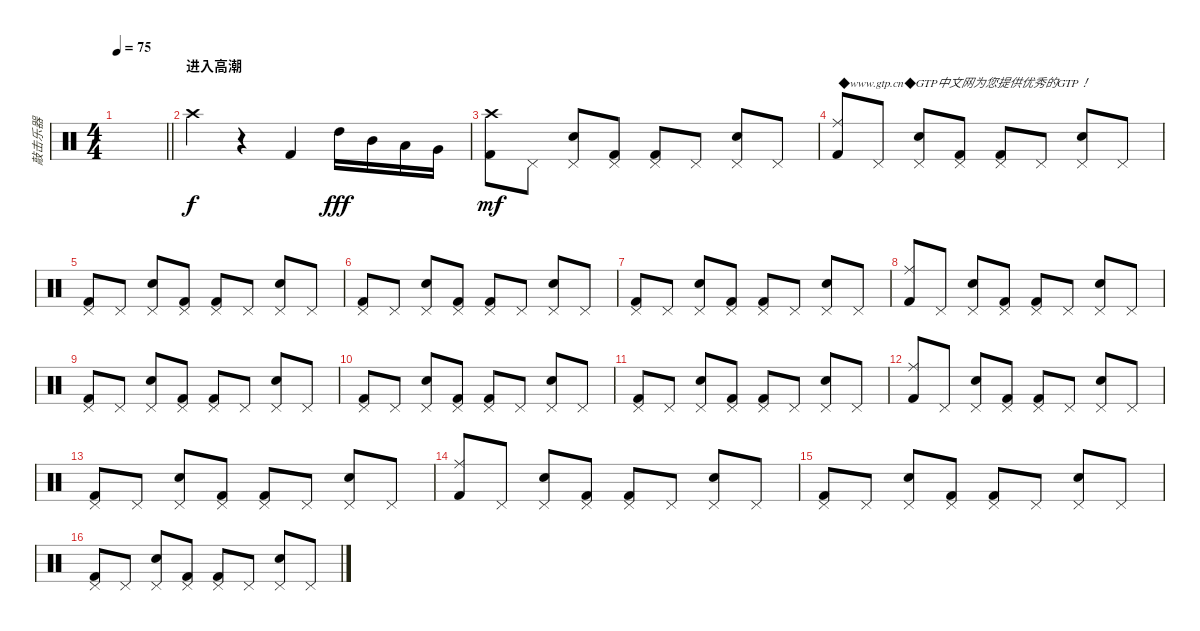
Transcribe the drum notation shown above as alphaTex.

\track ("敲击乐器" "敲击乐器") {instrument percussion}
\staff {score}
\articulation defaults
\ts (4 4)
\tempo 75
\clef neutral
\barLineRight lightlight
\ks c
|
\section ("" "进入高潮")
"Crash high (hit)".4 r.4 "Kick (hit) 2".4 "High Tom (hit)".16{dy fff} "Mid Tom (hit)".16 "Low Tom (hit)".16 "Very Low Tom (hit)".16 |
("Crash high (hit)" "Kick (hit) 2").8{dy mf} "Pedal Hi-Hat (hit)".8 ("Pedal Hi-Hat (hit)" "Electric Snare (hit)").8 ("Pedal Hi-Hat (hit)" "Kick (hit) 2").8 ("Pedal Hi-Hat (hit)" "Kick (hit) 2").8 "Pedal Hi-Hat (hit)".8 ("Pedal Hi-Hat (hit)" "Electric Snare (hit)").8 "Pedal Hi-Hat (hit)".8 |
("Ride (middle)" "Kick (hit) 2").8{txt "◆www.gtp.cn◆GTP中文网为您提供优秀的GTP！"} "Pedal Hi-Hat (hit)".8 ("Pedal Hi-Hat (hit)" "Electric Snare (hit)").8 ("Pedal Hi-Hat (hit)" "Kick (hit) 2").8 ("Pedal Hi-Hat (hit)" "Kick (hit) 2").8 "Pedal Hi-Hat (hit)".8 ("Pedal Hi-Hat (hit)" "Electric Snare (hit)").8 "Pedal Hi-Hat (hit)".8 |
("Pedal Hi-Hat (hit)" "Kick (hit) 2").8 "Pedal Hi-Hat (hit)".8 ("Pedal Hi-Hat (hit)" "Electric Snare (hit)").8 ("Pedal Hi-Hat (hit)" "Kick (hit) 2").8 ("Pedal Hi-Hat (hit)" "Kick (hit) 2").8 "Pedal Hi-Hat (hit)".8 ("Pedal Hi-Hat (hit)" "Electric Snare (hit)").8 "Pedal Hi-Hat (hit)".8 |
("Pedal Hi-Hat (hit)" "Kick (hit) 2").8 "Pedal Hi-Hat (hit)".8 ("Pedal Hi-Hat (hit)" "Electric Snare (hit)").8 ("Pedal Hi-Hat (hit)" "Kick (hit) 2").8 ("Pedal Hi-Hat (hit)" "Kick (hit) 2").8 "Pedal Hi-Hat (hit)".8 ("Pedal Hi-Hat (hit)" "Electric Snare (hit)").8 "Pedal Hi-Hat (hit)".8 |
("Pedal Hi-Hat (hit)" "Kick (hit) 2").8 "Pedal Hi-Hat (hit)".8 ("Pedal Hi-Hat (hit)" "Electric Snare (hit)").8 ("Pedal Hi-Hat (hit)" "Kick (hit) 2").8 ("Pedal Hi-Hat (hit)" "Kick (hit) 2").8 "Pedal Hi-Hat (hit)".8 ("Pedal Hi-Hat (hit)" "Electric Snare (hit)").8 "Pedal Hi-Hat (hit)".8 |
("Ride (middle)" "Kick (hit) 2").8 "Pedal Hi-Hat (hit)".8 ("Pedal Hi-Hat (hit)" "Electric Snare (hit)").8 ("Pedal Hi-Hat (hit)" "Kick (hit) 2").8 ("Pedal Hi-Hat (hit)" "Kick (hit) 2").8 "Pedal Hi-Hat (hit)".8 ("Pedal Hi-Hat (hit)" "Electric Snare (hit)").8 "Pedal Hi-Hat (hit)".8 |
("Pedal Hi-Hat (hit)" "Kick (hit) 2").8 "Pedal Hi-Hat (hit)".8 ("Pedal Hi-Hat (hit)" "Electric Snare (hit)").8 ("Pedal Hi-Hat (hit)" "Kick (hit) 2").8 ("Pedal Hi-Hat (hit)" "Kick (hit) 2").8 "Pedal Hi-Hat (hit)".8 ("Pedal Hi-Hat (hit)" "Electric Snare (hit)").8 "Pedal Hi-Hat (hit)".8 |
("Pedal Hi-Hat (hit)" "Kick (hit) 2").8 "Pedal Hi-Hat (hit)".8 ("Pedal Hi-Hat (hit)" "Electric Snare (hit)").8 ("Pedal Hi-Hat (hit)" "Kick (hit) 2").8 ("Pedal Hi-Hat (hit)" "Kick (hit) 2").8 "Pedal Hi-Hat (hit)".8 ("Pedal Hi-Hat (hit)" "Electric Snare (hit)").8 "Pedal Hi-Hat (hit)".8 |
("Pedal Hi-Hat (hit)" "Kick (hit) 2").8 "Pedal Hi-Hat (hit)".8 ("Pedal Hi-Hat (hit)" "Electric Snare (hit)").8 ("Pedal Hi-Hat (hit)" "Kick (hit) 2").8 ("Pedal Hi-Hat (hit)" "Kick (hit) 2").8 "Pedal Hi-Hat (hit)".8 ("Pedal Hi-Hat (hit)" "Electric Snare (hit)").8 "Pedal Hi-Hat (hit)".8 |
("Ride (middle)" "Kick (hit) 2").8 "Pedal Hi-Hat (hit)".8 ("Pedal Hi-Hat (hit)" "Electric Snare (hit)").8 ("Pedal Hi-Hat (hit)" "Kick (hit) 2").8 ("Pedal Hi-Hat (hit)" "Kick (hit) 2").8 "Pedal Hi-Hat (hit)".8 ("Pedal Hi-Hat (hit)" "Electric Snare (hit)").8 "Pedal Hi-Hat (hit)".8 |
("Pedal Hi-Hat (hit)" "Kick (hit) 2").8 "Pedal Hi-Hat (hit)".8 ("Pedal Hi-Hat (hit)" "Electric Snare (hit)").8 ("Pedal Hi-Hat (hit)" "Kick (hit) 2").8 ("Pedal Hi-Hat (hit)" "Kick (hit) 2").8 "Pedal Hi-Hat (hit)".8 ("Pedal Hi-Hat (hit)" "Electric Snare (hit)").8 "Pedal Hi-Hat (hit)".8 |
("Ride (middle)" "Kick (hit) 2").8 "Pedal Hi-Hat (hit)".8 ("Pedal Hi-Hat (hit)" "Electric Snare (hit)").8 ("Pedal Hi-Hat (hit)" "Kick (hit) 2").8 ("Pedal Hi-Hat (hit)" "Kick (hit) 2").8 "Pedal Hi-Hat (hit)".8 ("Pedal Hi-Hat (hit)" "Electric Snare (hit)").8 "Pedal Hi-Hat (hit)".8 |
("Pedal Hi-Hat (hit)" "Kick (hit) 2").8 "Pedal Hi-Hat (hit)".8 ("Pedal Hi-Hat (hit)" "Electric Snare (hit)").8 ("Pedal Hi-Hat (hit)" "Kick (hit) 2").8 ("Pedal Hi-Hat (hit)" "Kick (hit) 2").8 "Pedal Hi-Hat (hit)".8 ("Pedal Hi-Hat (hit)" "Electric Snare (hit)").8 "Pedal Hi-Hat (hit)".8 |
("Pedal Hi-Hat (hit)" "Kick (hit) 2").8 "Pedal Hi-Hat (hit)".8 ("Pedal Hi-Hat (hit)" "Electric Snare (hit)").8 ("Pedal Hi-Hat (hit)" "Kick (hit) 2").8 ("Pedal Hi-Hat (hit)" "Kick (hit) 2").8 "Pedal Hi-Hat (hit)".8 ("Pedal Hi-Hat (hit)" "Electric Snare (hit)").8 "Pedal Hi-Hat (hit)".8
